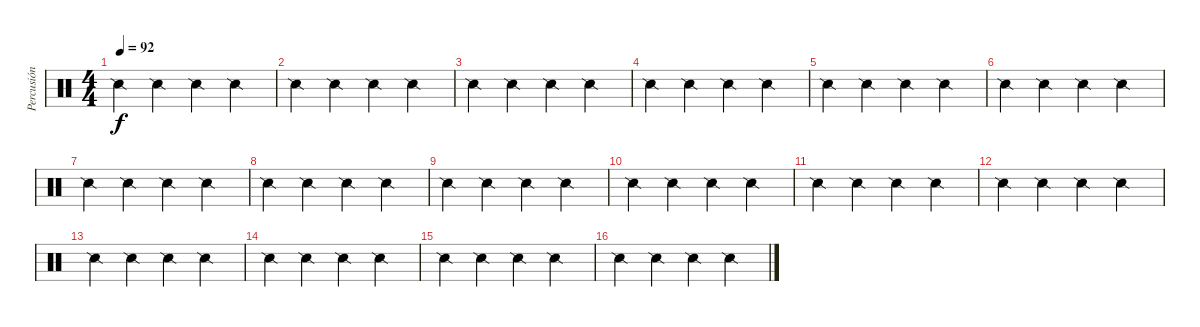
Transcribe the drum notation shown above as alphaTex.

\track ("Percusión" "Percusión") {instrument percussion}
\staff {score}
\articulation defaults
\ts (4 4)
\tempo 92
\clef neutral
\ks c "Snare (side stick) 2".4{dy f} "Snare (side stick) 2".4 "Snare (side stick) 2".4 "Snare (side stick) 2".4
|
"Snare (side stick) 2".4 "Snare (side stick) 2".4 "Snare (side stick) 2".4 "Snare (side stick) 2".4 |
"Snare (side stick) 2".4 "Snare (side stick) 2".4 "Snare (side stick) 2".4 "Snare (side stick) 2".4 |
"Snare (side stick) 2".4 "Snare (side stick) 2".4 "Snare (side stick) 2".4 "Snare (side stick) 2".4 |
"Snare (side stick) 2".4 "Snare (side stick) 2".4 "Snare (side stick) 2".4 "Snare (side stick) 2".4 |
"Snare (side stick) 2".4 "Snare (side stick) 2".4 "Snare (side stick) 2".4 "Snare (side stick) 2".4 |
"Snare (side stick) 2".4 "Snare (side stick) 2".4 "Snare (side stick) 2".4 "Snare (side stick) 2".4 |
"Snare (side stick) 2".4 "Snare (side stick) 2".4 "Snare (side stick) 2".4 "Snare (side stick) 2".4 |
"Snare (side stick) 2".4 "Snare (side stick) 2".4 "Snare (side stick) 2".4 "Snare (side stick) 2".4 |
"Snare (side stick) 2".4 "Snare (side stick) 2".4 "Snare (side stick) 2".4 "Snare (side stick) 2".4 |
"Snare (side stick) 2".4 "Snare (side stick) 2".4 "Snare (side stick) 2".4 "Snare (side stick) 2".4 |
"Snare (side stick) 2".4 "Snare (side stick) 2".4 "Snare (side stick) 2".4 "Snare (side stick) 2".4 |
"Snare (side stick) 2".4 "Snare (side stick) 2".4 "Snare (side stick) 2".4 "Snare (side stick) 2".4 |
"Snare (side stick) 2".4 "Snare (side stick) 2".4 "Snare (side stick) 2".4 "Snare (side stick) 2".4 |
"Snare (side stick) 2".4 "Snare (side stick) 2".4 "Snare (side stick) 2".4 "Snare (side stick) 2".4 |
"Snare (side stick) 2".4 "Snare (side stick) 2".4 "Snare (side stick) 2".4 "Snare (side stick) 2".4
